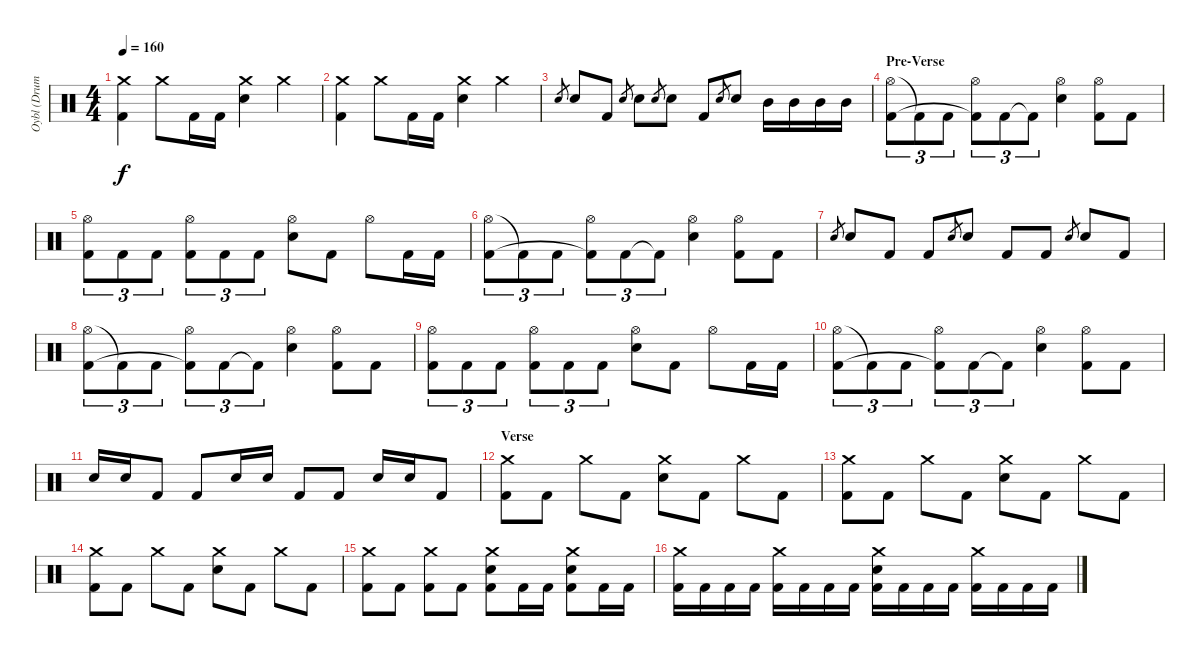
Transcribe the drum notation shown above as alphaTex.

\track ("Oybl (Drums)" "Oybl (Drum") {instrument percussion}
\staff {score}
\articulation defaults
\ts (4 4)
\tempo 160
\clef neutral
\ks c
("Crash medium (hit)" "Kick (hit) 2").4{dy f} "Crash medium (hit)".8 "Kick (hit) 2".16 "Kick (hit) 2".16 ("Crash medium (hit)" "Snare (hit) 2").4 "Crash medium (hit)".4 |
("Crash medium (hit)" "Kick (hit) 2").4 "Crash medium (hit)".8 "Kick (hit) 2".16 "Kick (hit) 2".16 ("Crash medium (hit)" "Snare (hit) 2").4 "Crash medium (hit)".4 |
"Snare (hit) 2".8{gr} "Snare (hit) 2".8 "Kick (hit) 2".8 "Snare (hit) 2".8{gr} "Snare (hit) 2".8 "Snare (hit) 2".8{gr} "Snare (hit) 2".8 "Kick (hit) 2".8 "Snare (hit) 2".8{gr} "Snare (hit) 2".8 "Mid Tom (hit)".16 "Mid Tom (hit)".16 "Mid Tom (hit)".16 "Mid Tom (hit)".16 |
\section ("" "Pre-Verse")
("Hi-Hat (open)" "Kick (hit) 2").8{tu (3 2)} "Kick (hit) 2"{t}.8{tu (3 2)} "Kick (hit) 2".8{tu (3 2)} ("Hi-Hat (open)" "Kick (hit) 2"{t}).8{tu (3 2)} "Kick (hit) 2".8{tu (3 2)} "Kick (hit) 2"{t}.8{tu (3 2)} ("Hi-Hat (open)" "Snare (hit) 2").4 ("Hi-Hat (open)" "Kick (hit) 2").8 "Kick (hit) 2".8 |
("Hi-Hat (open)" "Kick (hit) 2").8{tu (3 2)} "Kick (hit) 2".8{tu (3 2)} "Kick (hit) 2".8{tu (3 2)} ("Hi-Hat (open)" "Kick (hit) 2").8{tu (3 2)} "Kick (hit) 2".8{tu (3 2)} "Kick (hit) 2".8{tu (3 2)} ("Hi-Hat (open)" "Snare (hit) 2").8 "Kick (hit) 2".8 "Hi-Hat (open)".8 "Kick (hit) 2".16 "Kick (hit) 2".16 |
("Hi-Hat (open)" "Kick (hit) 2").8{tu (3 2)} "Kick (hit) 2"{t}.8{tu (3 2)} "Kick (hit) 2".8{tu (3 2)} ("Hi-Hat (open)" "Kick (hit) 2"{t}).8{tu (3 2)} "Kick (hit) 2".8{tu (3 2)} "Kick (hit) 2"{t}.8{tu (3 2)} ("Hi-Hat (open)" "Snare (hit) 2").4 ("Hi-Hat (open)" "Kick (hit) 2").8 "Kick (hit) 2".8 |
"Snare (hit) 2".8{gr} "Snare (hit) 2".8 "Kick (hit) 2".8 "Kick (hit) 2".8 "Snare (hit) 2".8{gr} "Snare (hit) 2".8 "Kick (hit) 2".8 "Kick (hit) 2".8 "Snare (hit) 2".8{gr} "Snare (hit) 2".8 "Kick (hit) 2".8 |
("Hi-Hat (open)" "Kick (hit) 2").8{tu (3 2)} "Kick (hit) 2"{t}.8{tu (3 2)} "Kick (hit) 2".8{tu (3 2)} ("Hi-Hat (open)" "Kick (hit) 2"{t}).8{tu (3 2)} "Kick (hit) 2".8{tu (3 2)} "Kick (hit) 2"{t}.8{tu (3 2)} ("Hi-Hat (open)" "Snare (hit) 2").4 ("Hi-Hat (open)" "Kick (hit) 2").8 "Kick (hit) 2".8 |
("Hi-Hat (open)" "Kick (hit) 2").8{tu (3 2)} "Kick (hit) 2".8{tu (3 2)} "Kick (hit) 2".8{tu (3 2)} ("Hi-Hat (open)" "Kick (hit) 2").8{tu (3 2)} "Kick (hit) 2".8{tu (3 2)} "Kick (hit) 2".8{tu (3 2)} ("Hi-Hat (open)" "Snare (hit) 2").8 "Kick (hit) 2".8 "Hi-Hat (open)".8 "Kick (hit) 2".16 "Kick (hit) 2".16 |
("Hi-Hat (open)" "Kick (hit) 2").8{tu (3 2)} "Kick (hit) 2"{t}.8{tu (3 2)} "Kick (hit) 2".8{tu (3 2)} ("Hi-Hat (open)" "Kick (hit) 2"{t}).8{tu (3 2)} "Kick (hit) 2".8{tu (3 2)} "Kick (hit) 2"{t}.8{tu (3 2)} ("Hi-Hat (open)" "Snare (hit) 2").4 ("Hi-Hat (open)" "Kick (hit) 2").8 "Kick (hit) 2".8 |
"Snare (hit) 2".16 "Snare (hit) 2".16 "Kick (hit) 2".8 "Kick (hit) 2".8 "Snare (hit) 2".16 "Snare (hit) 2".16 "Kick (hit) 2".8 "Kick (hit) 2".8 "Snare (hit) 2".16 "Snare (hit) 2".16 "Kick (hit) 2".8 |
\section ("" "Verse")
("Crash medium (hit)" "Kick (hit) 2").8 "Kick (hit) 2".8 "Crash medium (hit)".8 "Kick (hit) 2".8 ("Crash medium (hit)" "Snare (hit) 2").8 "Kick (hit) 2".8 "Crash medium (hit)".8 "Kick (hit) 2".8 |
("Crash medium (hit)" "Kick (hit) 2").8 "Kick (hit) 2".8 "Crash medium (hit)".8 "Kick (hit) 2".8 ("Crash medium (hit)" "Snare (hit) 2").8 "Kick (hit) 2".8 "Crash medium (hit)".8 "Kick (hit) 2".8 |
("Crash medium (hit)" "Kick (hit) 2").8 "Kick (hit) 2".8 "Crash medium (hit)".8 "Kick (hit) 2".8 ("Crash medium (hit)" "Snare (hit) 2").8 "Kick (hit) 2".8 "Crash medium (hit)".8 "Kick (hit) 2".8 |
("Crash medium (hit)" "Kick (hit) 2").8 "Kick (hit) 2".8 ("Crash medium (hit)" "Kick (hit) 2").8 "Kick (hit) 2".8 ("Crash medium (hit)" "Snare (hit) 2" "Kick (hit) 2").8 "Kick (hit) 2".16 "Kick (hit) 2".16 ("Crash medium (hit)" "Snare (hit) 2" "Kick (hit) 2").8 "Kick (hit) 2".16 "Kick (hit) 2".16 |
("Crash medium (hit)" "Kick (hit) 2").16 "Kick (hit) 2".16 "Kick (hit) 2".16 "Kick (hit) 2".16 ("Crash medium (hit)" "Kick (hit) 2").16 "Kick (hit) 2".16 "Kick (hit) 2".16 "Kick (hit) 2".16 ("Crash medium (hit)" "Snare (hit) 2" "Kick (hit) 2").16 "Kick (hit) 2".16 "Kick (hit) 2".16 "Kick (hit) 2".16 ("Crash medium (hit)" "Kick (hit) 2").16 "Kick (hit) 2".16 "Kick (hit) 2".16 "Kick (hit) 2".16
